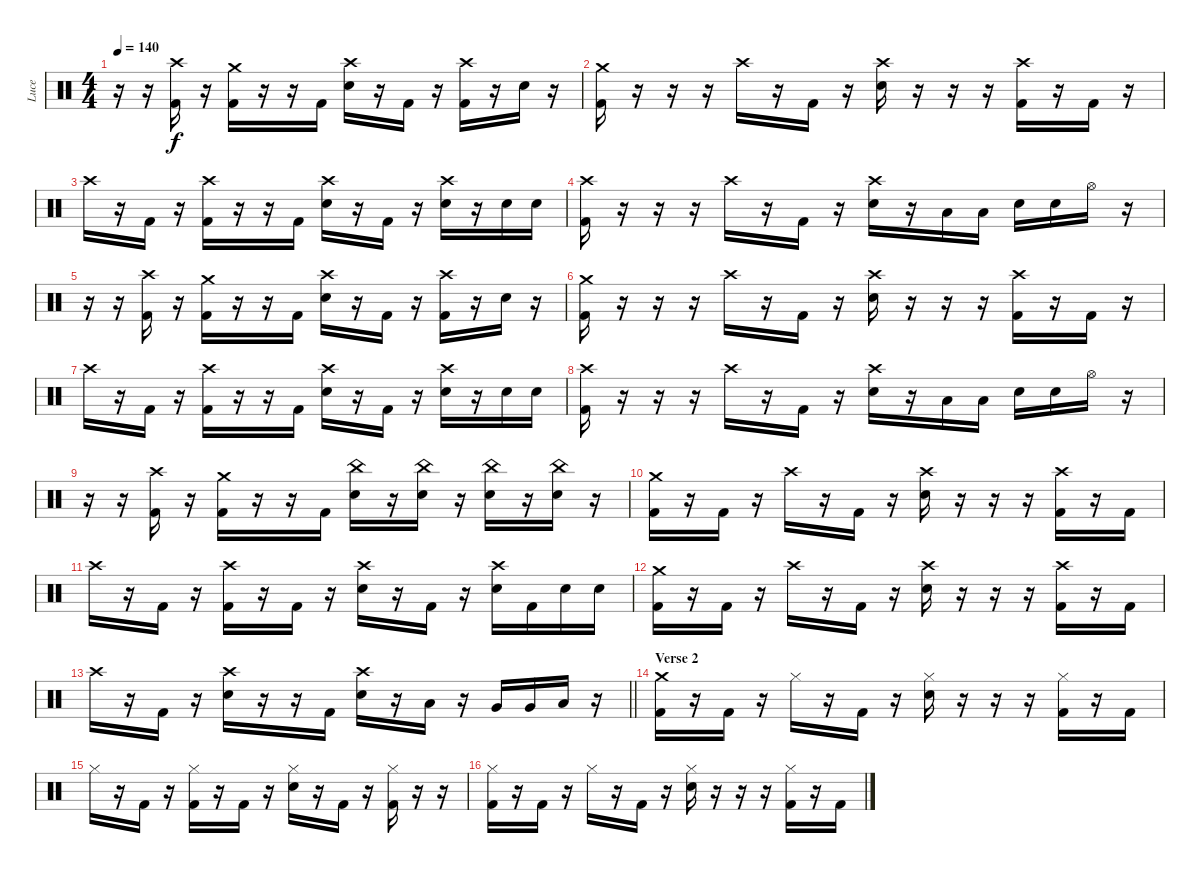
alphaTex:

\track ("Luce" "Luce") {instrument percussion}
\staff {score}
\articulation defaults
\ts (4 4)
\tempo 140
\clef neutral
\ks c
r.16{dy f} r.16 ("Crash high (hit)" "Kick (hit) 2").16 r.16 ("Crash medium (hit)" "Kick (hit) 2").16 r.16 r.16 "Kick (hit) 2".16 ("Crash high (hit)" "Electric Snare (hit)").16 r.16 "Kick (hit) 2".16 r.16 ("Crash high (hit)" "Kick (hit) 2").16 r.16 "Electric Snare (hit)".16 r.16 |
("Crash medium (hit)" "Kick (hit) 2").16 r.16 r.16 r.16 "Crash high (hit)".16 r.16 "Kick (hit) 2".16 r.16 ("Crash high (hit)" "Electric Snare (hit)").16 r.16 r.16 r.16 ("Crash high (hit)" "Kick (hit) 2").16 r.16 "Kick (hit) 2".16 r.16 |
"Crash high (hit)".16 r.16 "Kick (hit) 2".16 r.16 ("Crash high (hit)" "Kick (hit) 2").16 r.16 r.16 "Kick (hit) 2".16 ("Crash high (hit)" "Electric Snare (hit)").16 r.16 "Kick (hit) 2".16 r.16 ("Crash high (hit)" "Electric Snare (hit)").16 r.16 "Electric Snare (hit)".16 "Electric Snare (hit)".16 |
("Crash high (hit)" "Kick (hit) 2").16 r.16 r.16 r.16 "Crash high (hit)".16 r.16 "Kick (hit) 2".16 r.16 ("Crash high (hit)" "Electric Snare (hit)").16 r.16 "Low Tom (hit)".16 "Low Tom (hit)".16 "Electric Snare (hit)".16 "Electric Snare (hit)".16 "Hi-Hat (open)".16 r.16 |
r.16 r.16 ("Crash high (hit)" "Kick (hit) 2").16 r.16 ("Crash medium (hit)" "Kick (hit) 2").16 r.16 r.16 "Kick (hit) 2".16 ("Crash high (hit)" "Electric Snare (hit)").16 r.16 "Kick (hit) 2".16 r.16 ("Crash high (hit)" "Kick (hit) 2").16 r.16 "Electric Snare (hit)".16 r.16 |
("Crash medium (hit)" "Kick (hit) 2").16 r.16 r.16 r.16 "Crash high (hit)".16 r.16 "Kick (hit) 2".16 r.16 ("Crash high (hit)" "Electric Snare (hit)").16 r.16 r.16 r.16 ("Crash high (hit)" "Kick (hit) 2").16 r.16 "Kick (hit) 2".16 r.16 |
"Crash high (hit)".16 r.16 "Kick (hit) 2".16 r.16 ("Crash high (hit)" "Kick (hit) 2").16 r.16 r.16 "Kick (hit) 2".16 ("Crash high (hit)" "Electric Snare (hit)").16 r.16 "Kick (hit) 2".16 r.16 ("Crash high (hit)" "Electric Snare (hit)").16 r.16 "Electric Snare (hit)".16 "Electric Snare (hit)".16 |
("Crash high (hit)" "Kick (hit) 2").16 r.16 r.16 r.16 "Crash high (hit)".16 r.16 "Kick (hit) 2".16 r.16 ("Crash high (hit)" "Electric Snare (hit)").16 r.16 "Low Tom (hit)".16 "Low Tom (hit)".16 "Electric Snare (hit)".16 "Electric Snare (hit)".16 "Hi-Hat (open)".16 r.16 |
r.16 r.16 ("Crash high (hit)" "Kick (hit) 2").16 r.16 ("Crash medium (hit)" "Kick (hit) 2").16 r.16 r.16 "Kick (hit) 2".16 ("China (hit)" "Electric Snare (hit)").16 r.16 ("China (hit)" "Electric Snare (hit)").16 r.16 ("China (hit)" "Electric Snare (hit)").16 r.16 ("China (hit)" "Electric Snare (hit)").16 r.16 |
("Crash medium (hit)" "Kick (hit) 2").16 r.16 "Kick (hit) 2".16 r.16 "Crash high (hit)".16 r.16 "Kick (hit) 2".16 r.16 ("Crash high (hit)" "Electric Snare (hit)").16 r.16 r.16 r.16 ("Crash high (hit)" "Kick (hit) 2").16 r.16 "Kick (hit) 2".16 |
"Crash high (hit)".16 r.16 "Kick (hit) 2".16 r.16 ("Crash high (hit)" "Kick (hit) 2").16 r.16 "Kick (hit) 2".16 r.16 ("Crash high (hit)" "Electric Snare (hit)").16 r.16 "Kick (hit) 2".16 r.16 ("Crash high (hit)" "Electric Snare (hit)").16 "Kick (hit) 2".16 "Electric Snare (hit)".16 "Electric Snare (hit)".16 |
("Crash medium (hit)" "Kick (hit) 2").16 r.16 "Kick (hit) 2".16 r.16 "Crash high (hit)".16 r.16 "Kick (hit) 2".16 r.16 ("Crash high (hit)" "Electric Snare (hit)").16 r.16 r.16 r.16 ("Crash high (hit)" "Kick (hit) 2").16 r.16 "Kick (hit) 2".16 |
\barLineRight lightlight "Crash high (hit)".16
r.16 "Kick (hit) 2".16 r.16 ("Crash high (hit)" "Electric Snare (hit)").16 r.16 r.16 "Kick (hit) 2".16 ("Crash high (hit)" "Electric Snare (hit)").16 r.16 "Low Tom (hit)".16 r.16 "Very Low Tom (hit)".16 "Very Low Tom (hit)".16 "Low Floor Tom (hit)".16 r.16 |
\section ("" "Verse 2")
("Crash medium (hit)" "Kick (hit) 2").16 r.16 "Kick (hit) 2".16 r.16 "Hi-Hat (closed)".16 r.16 "Kick (hit) 2".16 r.16 ("Hi-Hat (closed)" "Electric Snare (hit)").16 r.16 r.16 r.16 ("Hi-Hat (closed)" "Kick (hit) 2").16 r.16 "Kick (hit) 2".16 |
"Hi-Hat (closed)".16 r.16 "Kick (hit) 2".16 r.16 ("Hi-Hat (closed)" "Kick (hit) 2").16 r.16 "Kick (hit) 2".16 r.16 ("Hi-Hat (closed)" "Electric Snare (hit)").16 r.16 "Kick (hit) 2".16 r.16 ("Hi-Hat (closed)" "Kick (hit) 2").16 r.16 r.16 |
("Hi-Hat (closed)" "Kick (hit) 2").16 r.16 "Kick (hit) 2".16 r.16 "Hi-Hat (closed)".16 r.16 "Kick (hit) 2".16 r.16 ("Hi-Hat (closed)" "Electric Snare (hit)").16 r.16 r.16 r.16 ("Hi-Hat (closed)" "Kick (hit) 2").16 r.16 "Kick (hit) 2".16
